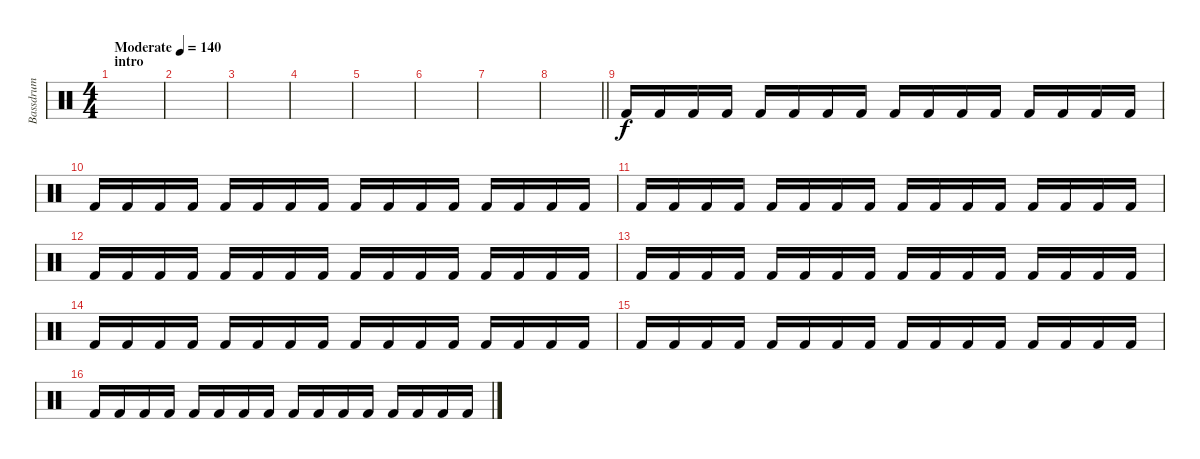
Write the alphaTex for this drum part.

\track ("Bassdrum" "Bassdrum") {instrument percussion}
\staff {score}
\articulation defaults
\ts (4 4)
\section ("" "intro")
\tempo (140 "Moderate")
\clef neutral
\ks c
|
|
|
|
|
|
|
\barLineRight lightlight
|
\section ("" "")
"Kick (hit) 2".16{volume 16} "Kick (hit) 2".16 "Kick (hit) 2".16 "Kick (hit) 2".16 "Kick (hit) 2".16 "Kick (hit) 2".16 "Kick (hit) 2".16 "Kick (hit) 2".16 "Kick (hit) 2".16 "Kick (hit) 2".16 "Kick (hit) 2".16 "Kick (hit) 2".16 "Kick (hit) 2".16 "Kick (hit) 2".16 "Kick (hit) 2".16 "Kick (hit) 2".16 |
"Kick (hit) 2".16 "Kick (hit) 2".16 "Kick (hit) 2".16 "Kick (hit) 2".16 "Kick (hit) 2".16 "Kick (hit) 2".16 "Kick (hit) 2".16 "Kick (hit) 2".16 "Kick (hit) 2".16 "Kick (hit) 2".16 "Kick (hit) 2".16 "Kick (hit) 2".16 "Kick (hit) 2".16 "Kick (hit) 2".16 "Kick (hit) 2".16 "Kick (hit) 2".16 |
"Kick (hit) 2".16 "Kick (hit) 2".16 "Kick (hit) 2".16 "Kick (hit) 2".16 "Kick (hit) 2".16 "Kick (hit) 2".16 "Kick (hit) 2".16 "Kick (hit) 2".16 "Kick (hit) 2".16 "Kick (hit) 2".16 "Kick (hit) 2".16 "Kick (hit) 2".16 "Kick (hit) 2".16 "Kick (hit) 2".16 "Kick (hit) 2".16 "Kick (hit) 2".16 |
"Kick (hit) 2".16 "Kick (hit) 2".16 "Kick (hit) 2".16 "Kick (hit) 2".16 "Kick (hit) 2".16 "Kick (hit) 2".16 "Kick (hit) 2".16 "Kick (hit) 2".16 "Kick (hit) 2".16 "Kick (hit) 2".16 "Kick (hit) 2".16 "Kick (hit) 2".16 "Kick (hit) 2".16 "Kick (hit) 2".16 "Kick (hit) 2".16 "Kick (hit) 2".16 |
"Kick (hit) 2".16 "Kick (hit) 2".16 "Kick (hit) 2".16 "Kick (hit) 2".16 "Kick (hit) 2".16 "Kick (hit) 2".16 "Kick (hit) 2".16 "Kick (hit) 2".16 "Kick (hit) 2".16 "Kick (hit) 2".16 "Kick (hit) 2".16 "Kick (hit) 2".16 "Kick (hit) 2".16 "Kick (hit) 2".16 "Kick (hit) 2".16 "Kick (hit) 2".16 |
"Kick (hit) 2".16 "Kick (hit) 2".16 "Kick (hit) 2".16 "Kick (hit) 2".16 "Kick (hit) 2".16 "Kick (hit) 2".16 "Kick (hit) 2".16 "Kick (hit) 2".16 "Kick (hit) 2".16 "Kick (hit) 2".16 "Kick (hit) 2".16 "Kick (hit) 2".16 "Kick (hit) 2".16 "Kick (hit) 2".16 "Kick (hit) 2".16 "Kick (hit) 2".16 |
"Kick (hit) 2".16 "Kick (hit) 2".16 "Kick (hit) 2".16 "Kick (hit) 2".16 "Kick (hit) 2".16 "Kick (hit) 2".16 "Kick (hit) 2".16 "Kick (hit) 2".16 "Kick (hit) 2".16 "Kick (hit) 2".16 "Kick (hit) 2".16 "Kick (hit) 2".16 "Kick (hit) 2".16 "Kick (hit) 2".16 "Kick (hit) 2".16 "Kick (hit) 2".16 |
"Kick (hit) 2".16 "Kick (hit) 2".16 "Kick (hit) 2".16 "Kick (hit) 2".16 "Kick (hit) 2".16 "Kick (hit) 2".16 "Kick (hit) 2".16 "Kick (hit) 2".16 "Kick (hit) 2".16 "Kick (hit) 2".16 "Kick (hit) 2".16 "Kick (hit) 2".16 "Kick (hit) 2".16 "Kick (hit) 2".16 "Kick (hit) 2".16 "Kick (hit) 2".16
